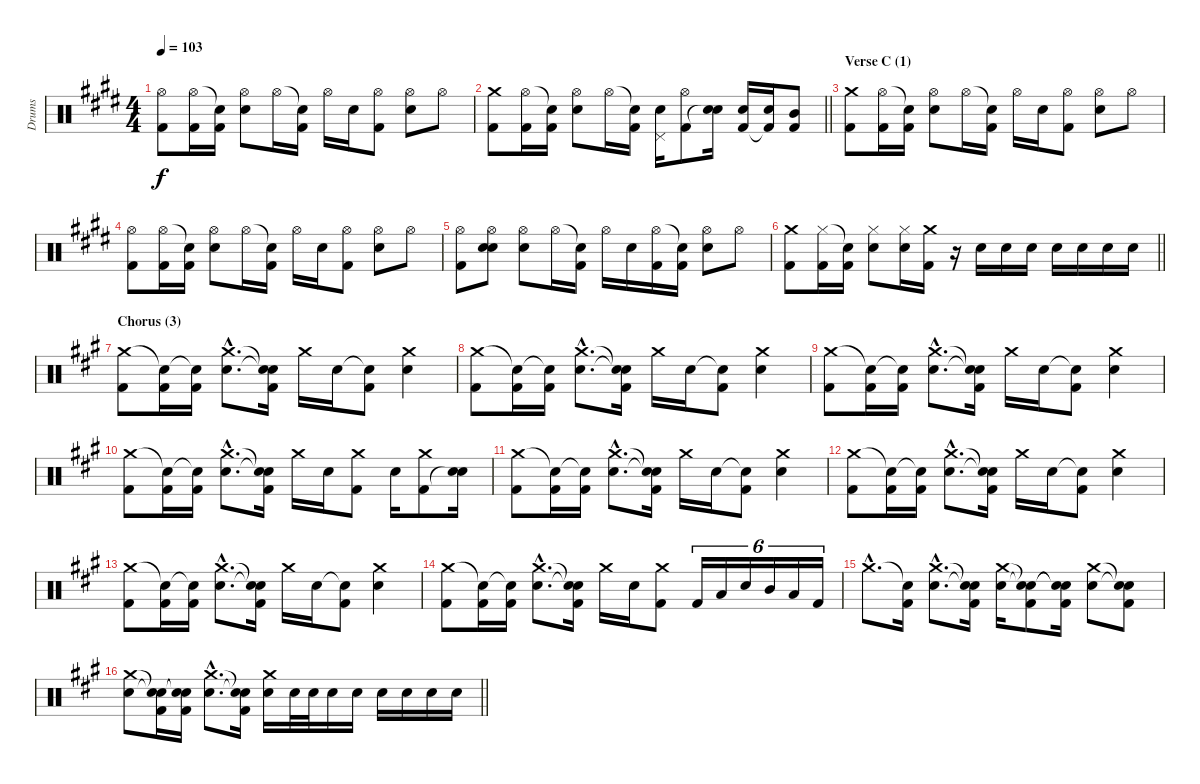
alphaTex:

\track ("Drums" "Drums") {instrument percussion}
\staff {score}
\articulation defaults
\ts (4 4)
\tempo 103
\clef neutral
\ks c#minor
("Hi-Hat (open)" "Kick (hit) 2").8{dy f} ("Hi-Hat (open)" "Kick (hit) 2").16 ("Snare (hit)"{t} "Kick (hit) 2").16 ("Hi-Hat (open)" "Electric Snare (hit)").8 "Hi-Hat (open)".16 ("Snare (hit)"{t} "Kick (hit) 2").16 "Hi-Hat (open)".16 "Electric Snare (hit)".16 ("Hi-Hat (open)" "Kick (hit) 2").8 ("Hi-Hat (open)" "Electric Snare (hit)").8 "Hi-Hat (open)".8 |
\barLineRight lightlight
("Crash medium (hit)" "Kick (hit) 2").8 ("Hi-Hat (open)" "Kick (hit) 2").16 ("Snare (hit)"{t} "Kick (hit) 2").16 ("Hi-Hat (open)" "Electric Snare (hit)").8 "Hi-Hat (open)".16 ("Snare (hit)"{t} "Kick (hit) 2").16 ("Pedal Hi-Hat (hit)" "Electric Snare (hit)").16 ("Hi-Hat (open)" "Kick (hit) 2").8 ("Electric Snare (hit)" "Snare (hit)"{t}).16 ("Electric Snare (hit)" "Kick (hit) 2").16 ("Electric Snare (hit)" "Kick (hit) 2"{t}).16 ("Mid Tom (hit)" "Kick (hit) 2").8 |
\section ("" "Verse C (1)")
("Crash medium (hit)" "Kick (hit) 2").8 ("Hi-Hat (open)" "Kick (hit) 2").16 ("Snare (hit)"{t} "Kick (hit) 2").16 ("Hi-Hat (open)" "Electric Snare (hit)").8 "Hi-Hat (open)".16 ("Snare (hit)"{t} "Kick (hit) 2").16 "Hi-Hat (open)".16 "Electric Snare (hit)".16 ("Hi-Hat (open)" "Kick (hit) 2").8 ("Hi-Hat (open)" "Electric Snare (hit)").8 "Hi-Hat (open)".8 |
("Hi-Hat (open)" "Kick (hit) 2").8 ("Hi-Hat (open)" "Kick (hit) 2").16 ("Snare (hit)"{t} "Kick (hit) 2").16 ("Hi-Hat (open)" "Electric Snare (hit)").8 "Hi-Hat (open)".16 ("Snare (hit)"{t} "Kick (hit) 2").16 "Hi-Hat (open)".16 "Electric Snare (hit)".16 ("Hi-Hat (open)" "Kick (hit) 2").8 ("Hi-Hat (open)" "Electric Snare (hit)").8 "Hi-Hat (open)".8 |
("Hi-Hat (open)" "Kick (hit) 2").8 ("Hi-Hat (open)" "Electric Snare (hit)" "Snare (hit)").8 ("Hi-Hat (open)" "Electric Snare (hit)").8 "Hi-Hat (open)".16 ("Snare (hit)"{t} "Kick (hit) 2").16 "Hi-Hat (open)".16 "Electric Snare (hit)".16 ("Hi-Hat (open)" "Kick (hit) 2").16 ("Snare (hit)"{t} "Kick (hit) 2").16 ("Hi-Hat (open)" "Electric Snare (hit)").8 "Hi-Hat (open)".8 |
\barLineRight lightlight
("Crash medium (hit)" "Kick (hit) 2").8 ("Hi-Hat (closed)" "Kick (hit) 2").16 ("Snare (hit)"{t} "Kick (hit) 2").16 ("Hi-Hat (closed)" "Electric Snare (hit)").8 ("Hi-Hat (closed)" "Electric Snare (hit)").16 ("Crash medium (hit)" "Kick (hit) 2").16 r.16 "Electric Snare (hit)".16 "Electric Snare (hit)".16 "Electric Snare (hit)".16 "Electric Snare (hit)".16 "Electric Snare (hit)".16 "Electric Snare (hit)".16 "Electric Snare (hit)".16 |
\section ("" "Chorus (3)")
\ks f#minor
("Crash medium (hit)" "Kick (hit) 2").8 ("Snare (hit)"{t} "Kick (hit) 2").16 ("Snare (hit)"{t} "Kick (hit) 2").16 ("Crash medium (hit)"{hac} "Electric Snare (hit)"{hac}).8{d} ("Snare (hit)"{t} "Snare (hit)"{t} "Kick (hit) 2").16 "Crash medium (hit)".16 "Electric Snare (hit)".16 ("Snare (hit)"{t} "Kick (hit) 2").8 ("Crash medium (hit)" "Electric Snare (hit)").4 |
("Crash medium (hit)" "Kick (hit) 2").8 ("Snare (hit)"{t} "Kick (hit) 2").16 ("Snare (hit)"{t} "Kick (hit) 2").16 ("Crash medium (hit)"{hac} "Electric Snare (hit)"{hac}).8{d} ("Snare (hit)"{t} "Snare (hit)"{t} "Kick (hit) 2").16 "Crash medium (hit)".16 "Electric Snare (hit)".16 ("Snare (hit)"{t} "Kick (hit) 2").8 ("Crash medium (hit)" "Electric Snare (hit)").4 |
("Crash medium (hit)" "Kick (hit) 2").8 ("Snare (hit)"{t} "Kick (hit) 2").16 ("Snare (hit)"{t} "Kick (hit) 2").16 ("Crash medium (hit)"{hac} "Electric Snare (hit)"{hac}).8{d} ("Snare (hit)"{t} "Snare (hit)"{t} "Kick (hit) 2").16 "Crash medium (hit)".16 "Electric Snare (hit)".16 ("Snare (hit)"{t} "Kick (hit) 2").8 ("Crash medium (hit)" "Electric Snare (hit)").4 |
("Crash medium (hit)" "Kick (hit) 2").8 ("Snare (hit)"{t} "Kick (hit) 2").16 ("Snare (hit)"{t} "Kick (hit) 2").16 ("Crash medium (hit)"{hac} "Electric Snare (hit)"{hac}).8{d} ("Snare (hit)"{t} "Snare (hit)"{t} "Kick (hit) 2").16 "Crash medium (hit)".16 "Electric Snare (hit)".16 ("Crash medium (hit)" "Kick (hit) 2").8 "Electric Snare (hit)".16 ("Crash medium (hit)" "Kick (hit) 2").8 ("Electric Snare (hit)" "Snare (hit)"{t}).16 |
("Crash medium (hit)" "Kick (hit) 2").8 ("Snare (hit)"{t} "Kick (hit) 2").16 ("Snare (hit)"{t} "Kick (hit) 2").16 ("Crash medium (hit)"{hac} "Electric Snare (hit)"{hac}).8{d} ("Snare (hit)"{t} "Snare (hit)"{t} "Kick (hit) 2").16 "Crash medium (hit)".16 "Electric Snare (hit)".16 ("Snare (hit)"{t} "Kick (hit) 2").8 ("Crash medium (hit)" "Electric Snare (hit)").4 |
("Crash medium (hit)" "Kick (hit) 2").8 ("Snare (hit)"{t} "Kick (hit) 2").16 ("Snare (hit)"{t} "Kick (hit) 2").16 ("Crash medium (hit)"{hac} "Electric Snare (hit)"{hac}).8{d} ("Snare (hit)"{t} "Snare (hit)"{t} "Kick (hit) 2").16 "Crash medium (hit)".16 "Electric Snare (hit)".16 ("Snare (hit)"{t} "Kick (hit) 2").8 ("Crash medium (hit)" "Electric Snare (hit)").4 |
("Crash medium (hit)" "Kick (hit) 2").8 ("Snare (hit)"{t} "Kick (hit) 2").16 ("Snare (hit)"{t} "Kick (hit) 2").16 ("Crash medium (hit)"{hac} "Electric Snare (hit)"{hac}).8{d} ("Snare (hit)"{t} "Snare (hit)"{t} "Kick (hit) 2").16 "Crash medium (hit)".16 "Electric Snare (hit)".16 ("Snare (hit)"{t} "Kick (hit) 2").8 ("Crash medium (hit)" "Electric Snare (hit)").4 |
("Crash medium (hit)" "Kick (hit) 2").8 ("Snare (hit)"{t} "Kick (hit) 2").16 ("Snare (hit)"{t} "Kick (hit) 2").16 ("Crash medium (hit)"{hac} "Electric Snare (hit)"{hac}).8{d} ("Snare (hit)"{t} "Snare (hit)"{t} "Kick (hit) 2").16 "Crash medium (hit)".16 "Electric Snare (hit)".16 ("Crash medium (hit)" "Kick (hit) 2").8 "Kick (hit) 2".16{tu (6 4)} "Low Floor Tom (hit)".16{tu (6 4)} "Electric Snare (hit)".16{tu (6 4)} "Mid Tom (hit)".16{tu (6 4)} "Low Floor Tom (hit)".16{tu (6 4)} "Kick (hit) 2".16{tu (6 4)} |
"Crash medium (hit)"{hac}.8{d} ("Snare (hit)"{t} "Kick (hit) 2").16 ("Crash medium (hit)"{hac} "Electric Snare (hit)"{hac}).8{d} ("Snare (hit)"{t} "Snare (hit)"{t} "Kick (hit) 2").16 ("Crash medium (hit)" "Electric Snare (hit)").16 ("Snare (hit)"{t} "Snare (hit)"{t} "Kick (hit) 2").8 ("Snare (hit)"{t} "Snare (hit)"{t} "Kick (hit) 2").16 ("Crash medium (hit)" "Electric Snare (hit)").8 ("Snare (hit)"{t} "Snare (hit)"{t} "Kick (hit) 2").8 |
\barLineRight lightlight
("Crash medium (hit)" "Electric Snare (hit)").8 ("Snare (hit)"{t} "Snare (hit)"{t} "Kick (hit) 2").16 ("Snare (hit)"{t} "Snare (hit)"{t} "Kick (hit) 2").16 ("Crash medium (hit)"{hac} "Electric Snare (hit)"{hac}).8{d} ("Snare (hit)"{t} "Snare (hit)"{t} "Kick (hit) 2").16 ("Crash medium (hit)" "Electric Snare (hit)").16 "Electric Snare (hit)".32 "Electric Snare (hit)".32 "Electric Snare (hit)".16 "Electric Snare (hit)".16 "Electric Snare (hit)".16 "Electric Snare (hit)".16 "Electric Snare (hit)".16 "Electric Snare (hit)".16
